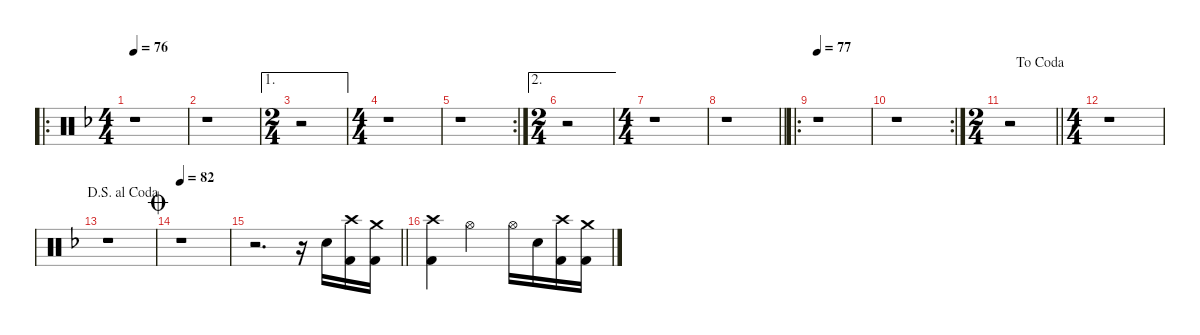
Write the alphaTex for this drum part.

\defaultSystemsLayout 4
\hideDynamics
\bracketExtendMode nobrackets
\singleTrackTrackNamePolicy hidden
\multiTrackTrackNamePolicy hidden
\otherSystemsTrackNameOrientation horizontal
\track ("Martin Lopez - Drums" "drm.") {defaultSystemsLayout 4 instrument percussion}
\staff {score}
\articulation defaults
\ro
\ts (4 4)
\tempo 76
\clef neutral
\ks dminor
r.1{dy f beam Down} |
r.1{beam Down} |
\ae 1
\ts (2 4)
\beaming (8 2 2 2 2)
r.2{beam Down} |
\ts (4 4)
\beaming (8 2 2 2 2)
r.1{beam Down} |
\rc 2
r.1{beam Down} |
\ae 2
\ts (2 4)
\beaming (8 2 2 2 2)
r.2{beam Down} |
\ts (4 4)
\beaming (8 2 2 2 2)
r.1{beam Down} |
\barLineRight lightlight
r.1{beam Down} |
\ro
\tempo 77
r.1{beam Down} |
\rc 2
r.1{beam Down} |
\ts (2 4)
\beaming (8 2 2 2 2)
\jump dacoda
\barLineRight lightlight
r.2{beam Down} |
\ts (4 4)
\beaming (8 2 2 2 2)
r.1{beam Down} |
\jump dalsegnoalcoda
r.1{beam Down} |
\jump coda
\tempo 82
r.1{beam Down} |
\barLineRight lightlight
r.2{d beam Down} r.16{beam Down} "Snare (hit) 2"{acc forcenatural}.16{beam Down} ("Crash high (hit)"{acc forcenatural} "Kick (hit) 2"{acc forcenatural}).16{beam Down} ("Crash medium (hit)"{acc forcenatural} "Kick (hit) 2"{acc forcenatural}).16{beam Down} |
("Crash high (hit)"{acc forcenatural} "Kick (hit) 2"{acc forcenatural}).4{beam Down} "Hi-Hat (open)"{acc forcenatural}.2{beam Down} "Hi-Hat (open)"{acc forcenatural}.16{beam Down} "Snare (hit) 2"{acc forcenatural}.16{beam Down} ("Crash high (hit)"{acc forcenatural} "Kick (hit) 2"{acc forcenatural}).16{beam Down} ("Crash medium (hit)"{acc forcenatural} "Kick (hit) 2"{acc forcenatural}).16{beam Down}
